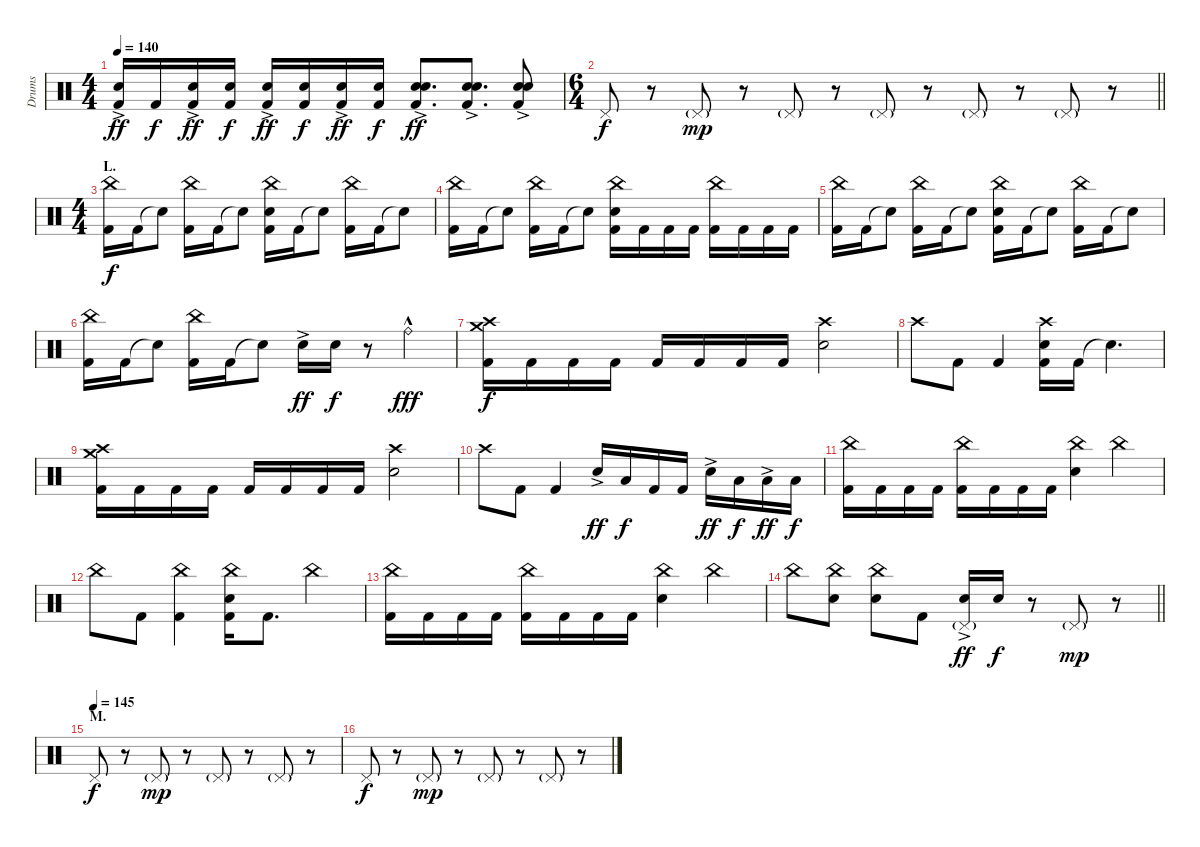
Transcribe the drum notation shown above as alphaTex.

\track ("Drums" "Drums") {instrument percussion}
\staff {score}
\articulation defaults
\ts (4 4)
\tempo 140
\clef neutral
\ks c
("Electric Snare (hit)"{ac} "Kick (hit) 2").16{dy ff} "Kick (hit) 2".16{dy f} ("Electric Snare (hit)"{ac} "Kick (hit) 2").16{dy ff} ("Electric Snare (hit)" "Kick (hit) 2").16{dy f} ("Electric Snare (hit)"{ac} "Kick (hit) 2").16{dy ff} ("Electric Snare (hit)" "Kick (hit) 2").16{dy f} ("Electric Snare (hit)"{ac} "Kick (hit) 2").16{dy ff} ("Electric Snare (hit)" "Kick (hit) 2").16{dy f} ("Electric Snare (hit)" "Electric Snare (hit)"{ac} "Kick (hit) 2").8{d dy ff} ("Electric Snare (hit)" "Electric Snare (hit)"{ac} "Kick (hit) 2").8{d} ("Electric Snare (hit)" "Electric Snare (hit)"{ac} "Kick (hit) 2").8 |
\ts (6 4)
\barLineRight lightlight "Pedal Hi-Hat (hit)".8{dy f}
r.8 "Pedal Hi-Hat (hit)"{g}.8{dy mp} r.8 "Pedal Hi-Hat (hit)"{g}.8 r.8 "Pedal Hi-Hat (hit)"{g}.8 r.8 "Pedal Hi-Hat (hit)"{g}.8 r.8 "Pedal Hi-Hat (hit)"{g}.8 r.8 |
\ts (4 4)
\section ("" "L.")
("China (hit)" "Kick (hit) 2").16{dy f} "Kick (hit) 2".16 "Snare (hit)"{t}.8 ("China (hit)" "Kick (hit) 2").16 "Kick (hit) 2".16 "Snare (hit)"{t}.8 ("China (hit)" "Electric Snare (hit)" "Kick (hit) 2").16 "Kick (hit) 2".16 "Snare (hit)"{t}.8 ("China (hit)" "Kick (hit) 2").16 "Kick (hit) 2".16 "Snare (hit)"{t}.8 |
("China (hit)" "Kick (hit) 2").16 "Kick (hit) 2".16 "Snare (hit)"{t}.8 ("China (hit)" "Kick (hit) 2").16 "Kick (hit) 2".16 "Snare (hit)"{t}.8 ("China (hit)" "Electric Snare (hit)" "Kick (hit) 2").16 "Kick (hit) 2".16 "Kick (hit) 2".16 "Kick (hit) 2".16 ("China (hit)" "Kick (hit) 2").16 "Kick (hit) 2".16 "Kick (hit) 2".16 "Kick (hit) 2".16 |
("China (hit)" "Kick (hit) 2").16 "Kick (hit) 2".16 "Snare (hit)"{t}.8 ("China (hit)" "Kick (hit) 2").16 "Kick (hit) 2".16 "Snare (hit)"{t}.8 ("China (hit)" "Electric Snare (hit)" "Kick (hit) 2").16 "Kick (hit) 2".16 "Snare (hit)"{t}.8 ("China (hit)" "Kick (hit) 2").16 "Kick (hit) 2".16 "Snare (hit)"{t}.8 |
("China (hit)" "Kick (hit) 2").16 "Kick (hit) 2".16 "Snare (hit)"{t}.8 ("China (hit)" "Kick (hit) 2").16 "Kick (hit) 2".16 "Snare (hit)"{t}.8 "Electric Snare (hit)"{ac}.16{dy ff} "Electric Snare (hit)".16{dy f} r.8 "Ride (bell)"{hac}.4{dy fff} |
("Crash medium (hit)" "Crash high (hit)" "Kick (hit) 2").16{dy f} "Kick (hit) 2".16 "Kick (hit) 2".16 "Kick (hit) 2".16 "Kick (hit) 2".16 "Kick (hit) 2".16 "Kick (hit) 2".16 "Kick (hit) 2".16 ("Crash high (hit)" "Electric Snare (hit)").2 |
"Crash high (hit)".8 "Kick (hit) 2".8 "Kick (hit) 2".4 ("Crash high (hit)" "Electric Snare (hit)" "Kick (hit) 2").16 "Kick (hit) 2".16 "Snare (hit)"{t}.4{d} |
("Crash medium (hit)" "Crash high (hit)" "Kick (hit) 2").16 "Kick (hit) 2".16 "Kick (hit) 2".16 "Kick (hit) 2".16 "Kick (hit) 2".16 "Kick (hit) 2".16 "Kick (hit) 2".16 "Kick (hit) 2".16 ("Crash high (hit)" "Electric Snare (hit)").2 |
"Crash high (hit)".8 "Kick (hit) 2".8 "Kick (hit) 2".4 "Electric Snare (hit)"{ac}.16{dy ff} "Low Tom (hit)".16{dy f} "Kick (hit) 2".16 "Kick (hit) 2".16 "Electric Snare (hit)"{ac}.16{dy ff} "Low Tom (hit)".16{dy f} "Low Tom (hit)"{ac}.16{dy ff} "Low Tom (hit)".16{dy f} |
("China (hit)" "Kick (hit) 2").16 "Kick (hit) 2".16 "Kick (hit) 2".16 "Kick (hit) 2".16 ("China (hit)" "Kick (hit) 2").16 "Kick (hit) 2".16 "Kick (hit) 2".16 "Kick (hit) 2".16 ("China (hit)" "Electric Snare (hit)").4 "China (hit)".4 |
"China (hit)".8 "Kick (hit) 2".8 ("China (hit)" "Kick (hit) 2").4 ("China (hit)" "Electric Snare (hit)" "Kick (hit) 2").16 "Kick (hit) 2".8{d} "China (hit)".4 |
("China (hit)" "Kick (hit) 2").16 "Kick (hit) 2".16 "Kick (hit) 2".16 "Kick (hit) 2".16 ("China (hit)" "Kick (hit) 2").16 "Kick (hit) 2".16 "Kick (hit) 2".16 "Kick (hit) 2".16 ("China (hit)" "Electric Snare (hit)").4 "China (hit)".4 |
\barLineRight lightlight "China (hit)".8
("China (hit)" "Electric Snare (hit)").8 ("China (hit)" "Electric Snare (hit)").8 "Kick (hit) 2".8 ("Pedal Hi-Hat (hit)"{g} "Electric Snare (hit)"{ac}).16{dy ff} "Electric Snare (hit)".16{dy f} r.8 "Pedal Hi-Hat (hit)"{g}.8{dy mp} r.8 |
\section ("" "M.")
\tempo (145)
"Pedal Hi-Hat (hit)".8{dy f} r.8 "Pedal Hi-Hat (hit)"{g}.8{dy mp} r.8 "Pedal Hi-Hat (hit)"{g}.8 r.8 "Pedal Hi-Hat (hit)"{g}.8 r.8 |
"Pedal Hi-Hat (hit)".8{dy f} r.8 "Pedal Hi-Hat (hit)"{g}.8{dy mp} r.8 "Pedal Hi-Hat (hit)"{g}.8 r.8 "Pedal Hi-Hat (hit)"{g}.8 r.8
